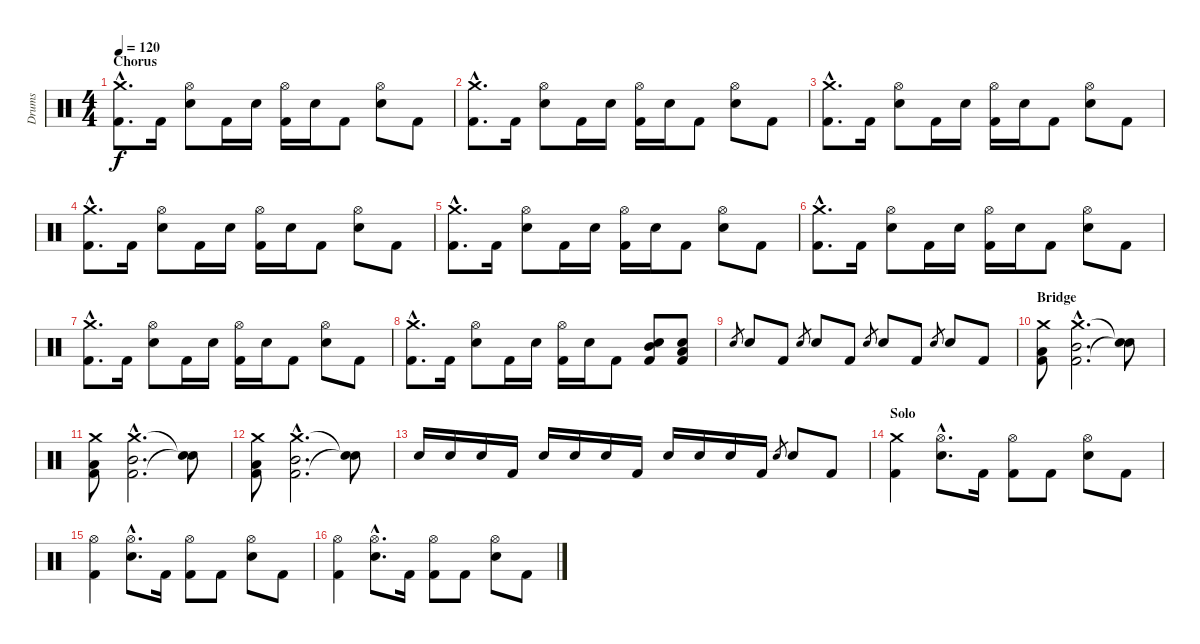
\track ("Drums" "Drums") {instrument percussion}
\staff {score}
\articulation defaults
\ts (4 4)
\section ("" "Chorus")
\tempo 120
\clef neutral
\ks c
("Crash medium (hit)"{hac} "Kick (hit) 2"{hac}).8{d dy f} "Kick (hit) 2".16 ("Hi-Hat (open)" "Electric Snare (hit)").8 "Kick (hit) 2".16 "Electric Snare (hit)".16 ("Hi-Hat (open)" "Kick (hit) 2").16 "Electric Snare (hit)".16 "Kick (hit) 2".8 ("Hi-Hat (open)" "Electric Snare (hit)").8 "Kick (hit) 2".8 |
("Crash medium (hit)"{hac} "Kick (hit) 2"{hac}).8{d} "Kick (hit) 2".16 ("Hi-Hat (open)" "Electric Snare (hit)").8 "Kick (hit) 2".16 "Electric Snare (hit)".16 ("Hi-Hat (open)" "Kick (hit) 2").16 "Electric Snare (hit)".16 "Kick (hit) 2".8 ("Hi-Hat (open)" "Electric Snare (hit)").8 "Kick (hit) 2".8 |
("Crash medium (hit)"{hac} "Kick (hit) 2"{hac}).8{d} "Kick (hit) 2".16 ("Hi-Hat (open)" "Electric Snare (hit)").8 "Kick (hit) 2".16 "Electric Snare (hit)".16 ("Hi-Hat (open)" "Kick (hit) 2").16 "Electric Snare (hit)".16 "Kick (hit) 2".8 ("Hi-Hat (open)" "Electric Snare (hit)").8 "Kick (hit) 2".8 |
("Crash medium (hit)"{hac} "Kick (hit) 2"{hac}).8{d} "Kick (hit) 2".16 ("Hi-Hat (open)" "Electric Snare (hit)").8 "Kick (hit) 2".16 "Electric Snare (hit)".16 ("Hi-Hat (open)" "Kick (hit) 2").16 "Electric Snare (hit)".16 "Kick (hit) 2".8 ("Hi-Hat (open)" "Electric Snare (hit)").8 "Kick (hit) 2".8 |
("Crash medium (hit)"{hac} "Kick (hit) 2"{hac}).8{d} "Kick (hit) 2".16 ("Hi-Hat (open)" "Electric Snare (hit)").8 "Kick (hit) 2".16 "Electric Snare (hit)".16 ("Hi-Hat (open)" "Kick (hit) 2").16 "Electric Snare (hit)".16 "Kick (hit) 2".8 ("Hi-Hat (open)" "Electric Snare (hit)").8 "Kick (hit) 2".8 |
("Crash medium (hit)"{hac} "Kick (hit) 2"{hac}).8{d} "Kick (hit) 2".16 ("Hi-Hat (open)" "Electric Snare (hit)").8 "Kick (hit) 2".16 "Electric Snare (hit)".16 ("Hi-Hat (open)" "Kick (hit) 2").16 "Electric Snare (hit)".16 "Kick (hit) 2".8 ("Hi-Hat (open)" "Electric Snare (hit)").8 "Kick (hit) 2".8 |
("Crash medium (hit)"{hac} "Kick (hit) 2"{hac}).8{d} "Kick (hit) 2".16 ("Hi-Hat (open)" "Electric Snare (hit)").8 "Kick (hit) 2".16 "Electric Snare (hit)".16 ("Hi-Hat (open)" "Kick (hit) 2").16 "Electric Snare (hit)".16 "Kick (hit) 2".8 ("Hi-Hat (open)" "Electric Snare (hit)").8 "Kick (hit) 2".8 |
("Crash medium (hit)"{hac} "Kick (hit) 2"{hac}).8{d} "Kick (hit) 2".16 ("Hi-Hat (open)" "Electric Snare (hit)").8 "Kick (hit) 2".16 "Electric Snare (hit)".16 ("Hi-Hat (open)" "Kick (hit) 2").16 "Electric Snare (hit)".16 "Kick (hit) 2".8 ("Electric Snare (hit)" "Kick (hit) 2" "Mid Tom (hit)").8 ("Electric Snare (hit)" "Kick (hit) 2" "Low Tom (hit)").8 |
"Electric Snare (hit)".8{gr} "Electric Snare (hit)".8 "Kick (hit) 2".8 "Electric Snare (hit)".8{gr} "Electric Snare (hit)".8 "Kick (hit) 2".8 "Electric Snare (hit)".8{gr} "Electric Snare (hit)".8 "Kick (hit) 2".8 "Electric Snare (hit)".8{gr} "Electric Snare (hit)".8 "Kick (hit) 2".8 |
\section ("" "Bridge")
("Crash medium (hit)" "Kick (hit) 2" "Low Tom (hit)").8 ("Crash medium (hit)"{hac} "Kick (hit) 2"{hac} "Mid Tom (hit)"{hac}).2{d} ("Snare (hit)"{t} "Snare (hit)"{t}).8 |
("Crash medium (hit)" "Kick (hit) 2" "Low Tom (hit)").8 ("Crash medium (hit)"{hac} "Kick (hit) 2"{hac} "Mid Tom (hit)"{hac}).2{d} ("Snare (hit)"{t} "Snare (hit)"{t}).8 |
("Crash medium (hit)" "Kick (hit) 2" "Low Tom (hit)").8 ("Crash medium (hit)"{hac} "Kick (hit) 2"{hac} "Mid Tom (hit)"{hac}).2{d} ("Snare (hit)"{t} "Snare (hit)"{t}).8 |
"Electric Snare (hit)".16 "Electric Snare (hit)".16 "Electric Snare (hit)".16 "Kick (hit) 2".16 "Electric Snare (hit)".16 "Electric Snare (hit)".16 "Electric Snare (hit)".16 "Kick (hit) 2".16 "Electric Snare (hit)".16 "Electric Snare (hit)".16 "Electric Snare (hit)".16 "Kick (hit) 2".16 "Electric Snare (hit)".8{gr} "Electric Snare (hit)".8 "Kick (hit) 2".8 |
\section ("" "Solo")
("Crash medium (hit)" "Kick (hit) 2").4 ("Hi-Hat (open)"{hac} "Electric Snare (hit)"{hac}).8{d} "Kick (hit) 2".16 ("Hi-Hat (open)" "Kick (hit) 2").8 "Kick (hit) 2".8 ("Hi-Hat (open)" "Electric Snare (hit)").8 "Kick (hit) 2".8 |
("Hi-Hat (open)" "Kick (hit) 2").4 ("Hi-Hat (open)"{hac} "Electric Snare (hit)"{hac}).8{d} "Kick (hit) 2".16 ("Hi-Hat (open)" "Kick (hit) 2").8 "Kick (hit) 2".8 ("Hi-Hat (open)" "Electric Snare (hit)").8 "Kick (hit) 2".8 |
("Hi-Hat (open)" "Kick (hit) 2").4 ("Hi-Hat (open)"{hac} "Electric Snare (hit)"{hac}).8{d} "Kick (hit) 2".16 ("Hi-Hat (open)" "Kick (hit) 2").8 "Kick (hit) 2".8 ("Hi-Hat (open)" "Electric Snare (hit)").8 "Kick (hit) 2".8
